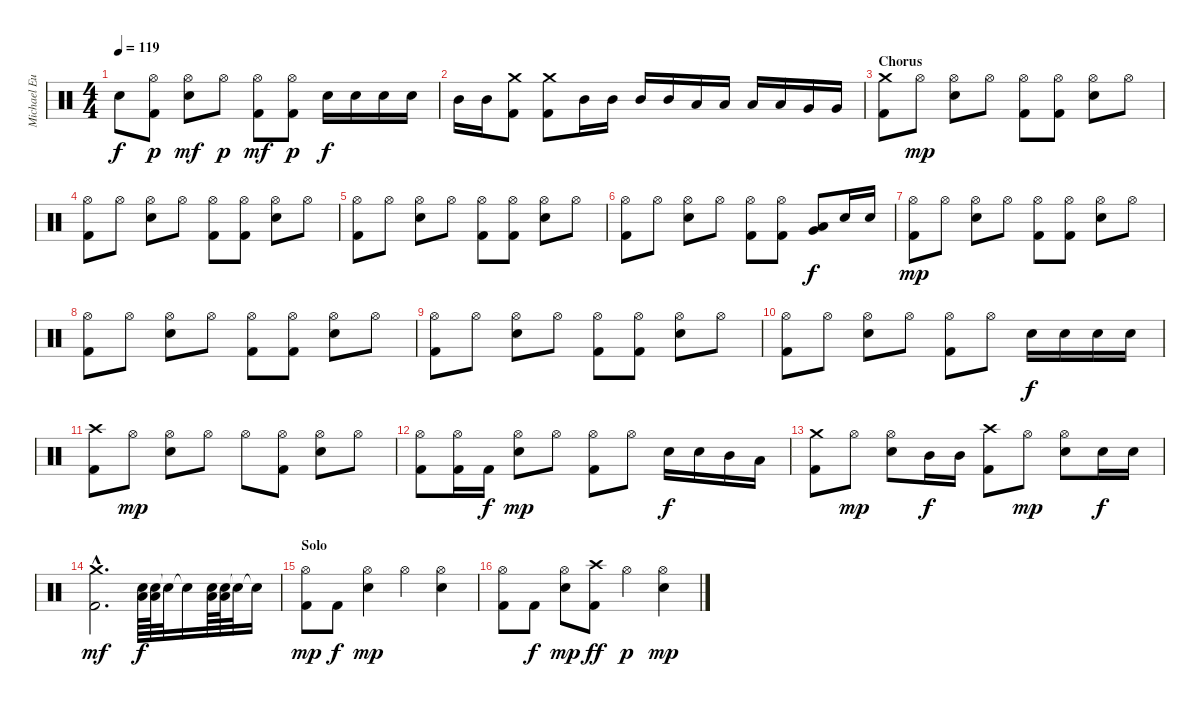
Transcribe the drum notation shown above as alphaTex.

\track ("Michael Eurich" "Michael Eu") {instrument percussion}
\staff {score}
\articulation defaults
\ts (4 4)
\tempo 119
\clef neutral
\ks c "Snare (hit)"{t}.8{dy f}
("Kick (hit) 2" "Hi-Hat (open)").8{dy p} ("Hi-Hat (open)" "Snare (hit) 2").8{dy mf} "Hi-Hat (open)".8{dy p} ("Kick (hit) 2" "Hi-Hat (open)").8{dy mf} ("Kick (hit) 2" "Hi-Hat (open)").8{dy p} "Snare (hit) 2".16{dy f} "Snare (hit) 2".16 "Snare (hit) 2".16 "Snare (hit) 2".16 |
"Mid Tom (hit)".16 "Mid Tom (hit)".16 ("Kick (hit) 2" "Crash medium (hit)").8 ("Kick (hit) 2" "Crash medium (hit)").8 "Mid Tom (hit)".16 "Mid Tom (hit)".16 "Mid Tom (hit)".16 "Mid Tom (hit)".16 "Low Tom (hit)".16 "Low Tom (hit)".16 "Low Tom (hit)".16 "Low Tom (hit)".16 "Very Low Tom (hit)".16 "Very Low Tom (hit)".16 |
\section ("" "Chorus")
("Kick (hit) 2" "Crash medium (hit)").8 "Hi-Hat (open)".8{dy mp} ("Hi-Hat (open)" "Snare (hit) 2").8 "Hi-Hat (open)".8 ("Kick (hit) 2" "Hi-Hat (open)").8 ("Kick (hit) 2" "Hi-Hat (open)").8 ("Hi-Hat (open)" "Snare (hit) 2").8 "Hi-Hat (open)".8 |
("Kick (hit) 2" "Hi-Hat (open)").8 "Hi-Hat (open)".8 ("Hi-Hat (open)" "Snare (hit) 2").8 "Hi-Hat (open)".8 ("Kick (hit) 2" "Hi-Hat (open)").8 ("Kick (hit) 2" "Hi-Hat (open)").8 ("Hi-Hat (open)" "Snare (hit) 2").8 "Hi-Hat (open)".8 |
("Kick (hit) 2" "Hi-Hat (open)").8 "Hi-Hat (open)".8 ("Hi-Hat (open)" "Snare (hit) 2").8 "Hi-Hat (open)".8 ("Kick (hit) 2" "Hi-Hat (open)").8 ("Kick (hit) 2" "Hi-Hat (open)").8 ("Hi-Hat (open)" "Snare (hit) 2").8 "Hi-Hat (open)".8 |
("Kick (hit) 2" "Hi-Hat (open)").8 "Hi-Hat (open)".8 ("Hi-Hat (open)" "Snare (hit) 2").8 "Hi-Hat (open)".8 ("Kick (hit) 2" "Hi-Hat (open)").8 ("Kick (hit) 2" "Hi-Hat (open)").8 ("Very Low Tom (hit)" "Low Tom (hit)").8{dy f} "Snare (hit) 2".16 "Snare (hit) 2".16 |
("Kick (hit) 2" "Hi-Hat (open)").8{dy mp} "Hi-Hat (open)".8 ("Hi-Hat (open)" "Snare (hit) 2").8 "Hi-Hat (open)".8 ("Kick (hit) 2" "Hi-Hat (open)").8 ("Kick (hit) 2" "Hi-Hat (open)").8 ("Hi-Hat (open)" "Snare (hit) 2").8 "Hi-Hat (open)".8 |
("Kick (hit) 2" "Hi-Hat (open)").8 "Hi-Hat (open)".8 ("Hi-Hat (open)" "Snare (hit) 2").8 "Hi-Hat (open)".8 ("Kick (hit) 2" "Hi-Hat (open)").8 ("Kick (hit) 2" "Hi-Hat (open)").8 ("Hi-Hat (open)" "Snare (hit) 2").8 "Hi-Hat (open)".8 |
("Kick (hit) 2" "Hi-Hat (open)").8 "Hi-Hat (open)".8 ("Hi-Hat (open)" "Snare (hit) 2").8 "Hi-Hat (open)".8 ("Kick (hit) 2" "Hi-Hat (open)").8 ("Kick (hit) 2" "Hi-Hat (open)").8 ("Hi-Hat (open)" "Snare (hit) 2").8 "Hi-Hat (open)".8 |
("Kick (hit) 2" "Hi-Hat (open)").8 "Hi-Hat (open)".8 ("Hi-Hat (open)" "Snare (hit) 2").8 "Hi-Hat (open)".8 ("Kick (hit) 2" "Hi-Hat (open)").8 "Hi-Hat (open)".8 "Snare (hit) 2".16{dy f} "Snare (hit) 2".16 "Snare (hit) 2".16 "Snare (hit) 2".16 |
("Kick (hit) 2" "Crash high (hit)").8 "Hi-Hat (open)".8{dy mp} ("Hi-Hat (open)" "Snare (hit) 2").8 "Hi-Hat (open)".8 "Hi-Hat (open)".8 ("Kick (hit) 2" "Hi-Hat (open)").8 ("Hi-Hat (open)" "Snare (hit) 2").8 "Hi-Hat (open)".8 |
("Kick (hit) 2" "Hi-Hat (open)").8 ("Kick (hit) 2" "Hi-Hat (open)").16 "Kick (hit) 2".16{dy f} ("Hi-Hat (open)" "Snare (hit) 2").8{dy mp} "Hi-Hat (open)".8 ("Kick (hit) 2" "Hi-Hat (open)").8 "Hi-Hat (open)".8 "Snare (hit) 2".16{dy f} "Snare (hit) 2".16 "Mid Tom (hit)".16 "Low Tom (hit)".16 |
("Kick (hit) 2" "Crash medium (hit)").8 "Hi-Hat (open)".8{dy mp} ("Hi-Hat (open)" "Snare (hit) 2").8 "Mid Tom (hit)".16{dy f} "Mid Tom (hit)".16 ("Kick (hit) 2" "Crash high (hit)").8 "Hi-Hat (open)".8{dy mp} ("Hi-Hat (open)" "Snare (hit) 2").8 "Snare (hit) 2".16{dy f} "Snare (hit) 2".16 |
("Kick (hit) 2"{hac} "Crash medium (hit)"{hac}).2{d dy mf} ("Snare (hit) 2" "Low Tom (hit)").64{dy f} ("Snare (hit) 2" "Low Tom (hit)").64 "Snare (hit)"{t}.32 "Snare (hit)"{t}.16 ("Snare (hit) 2" "Low Tom (hit)").64 ("Snare (hit) 2" "Low Tom (hit)").64 "Snare (hit)"{t}.32 "Snare (hit)"{t}.16 |
\section ("" "Solo")
("Kick (hit) 2" "Hi-Hat (open)").8{dy mp} "Kick (hit) 2".8{dy f} ("Hi-Hat (open)" "Snare (hit) 2").4{dy mp} "Hi-Hat (open)".4 ("Hi-Hat (open)" "Snare (hit) 2").4 |
("Kick (hit) 2" "Hi-Hat (open)").8 "Kick (hit) 2".8{dy f} ("Hi-Hat (open)" "Snare (hit) 2").8{dy mp} ("Kick (hit) 2" "Crash high (hit)").8{dy ff} "Hi-Hat (open)".4{dy p} ("Hi-Hat (open)" "Snare (hit) 2").4{dy mp}
